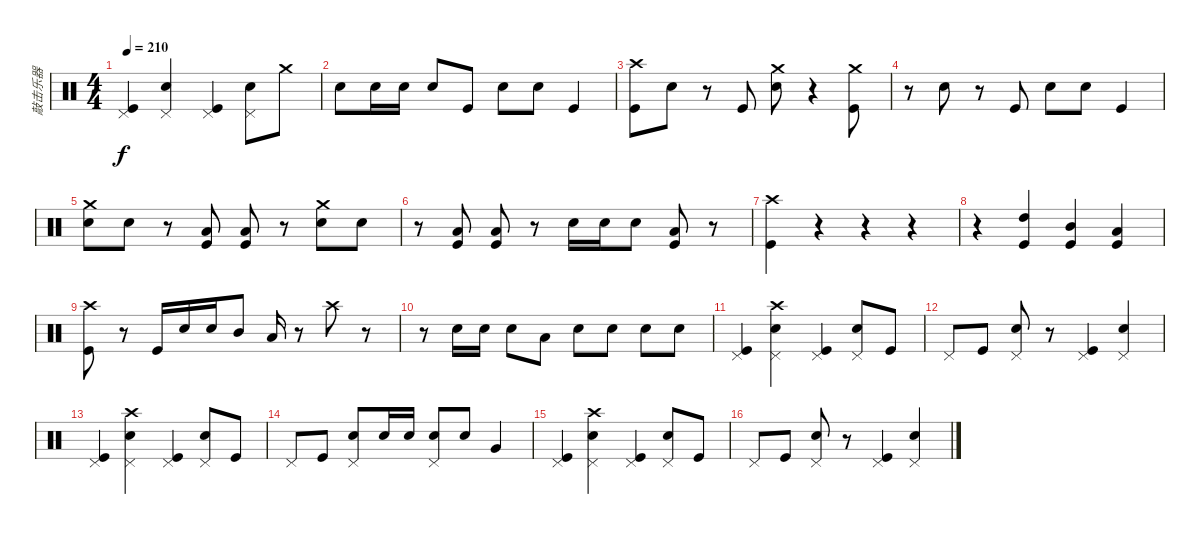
\track ("敲击乐器" "敲击乐器") {instrument percussion}
\staff {score}
\articulation defaults
\ts (4 4)
\tempo 210
\clef neutral
\ks c
("Pedal Hi-Hat (hit)" "Kick (hit)").4{dy f} ("Pedal Hi-Hat (hit)" "Snare (hit) 2").4 ("Pedal Hi-Hat (hit)" "Kick (hit)").4 ("Pedal Hi-Hat (hit)" "Snare (hit) 2").8 "Crash medium (hit)".8 |
"Snare (hit) 2".8 "Snare (hit) 2".16 "Snare (hit) 2".16 "Snare (hit) 2".8 "Kick (hit)".8 "Snare (hit) 2".8 "Snare (hit) 2".8 "Kick (hit)".4 |
("Crash high (hit)" "Kick (hit)").8 "Snare (hit) 2".8 r.8 "Kick (hit)".8 ("Crash medium (hit)" "Snare (hit) 2").8 r.4 ("Crash medium (hit)" "Kick (hit)").8 |
r.8 "Snare (hit) 2".8 r.8 "Kick (hit)".8 "Snare (hit) 2".8 "Snare (hit) 2".8 "Kick (hit)".4 |
("Crash medium (hit)" "Snare (hit) 2").8 "Snare (hit) 2".8 r.8 ("Low Floor Tom (hit)" "Kick (hit)").8 ("Kick (hit)" "Low Tom (hit)").8 r.8 ("Crash medium (hit)" "Snare (hit) 2").8 "Snare (hit) 2".8 |
r.8 ("Low Floor Tom (hit)" "Kick (hit)").8 ("Kick (hit)" "Low Tom (hit)").8 r.8 "Snare (hit) 2".16 "Snare (hit) 2".16 "Snare (hit) 2".8 ("Kick (hit)" "Low Tom (hit)").8 r.8 |
("Crash high (hit)" "Kick (hit)").4 r.4 r.4 r.4 |
r.4 ("High Tom (hit)" "Kick (hit)").4 ("Mid Tom (hit)" "Kick (hit)").4 ("Low Tom (hit)" "Kick (hit)").4 |
("Kick (hit)" "Crash high (hit)").8 r.8 "Kick (hit)".16 "Snare (hit) 2".16 "Snare (hit) 2".16 "Mid Tom (hit)".8 "Low Tom (hit)".16 r.8 "Crash high (hit)".8 r.8 |
r.8 "Snare (hit) 2".16 "Snare (hit) 2".16 "Snare (hit) 2".8 "Low Floor Tom (hit)".8 "Snare (hit) 2".8 "Snare (hit) 2".8 "Snare (hit) 2".8 "Snare (hit) 2".8 |
("Pedal Hi-Hat (hit)" "Kick (hit)").4 ("Crash high (hit)" "Pedal Hi-Hat (hit)" "Snare (hit) 2").4 ("Pedal Hi-Hat (hit)" "Kick (hit)").4 ("Pedal Hi-Hat (hit)" "Snare (hit) 2").8 "Kick (hit)".8 |
"Pedal Hi-Hat (hit)".8 "Kick (hit)".8 ("Pedal Hi-Hat (hit)" "Snare (hit) 2").8 r.8 ("Kick (hit)" "Pedal Hi-Hat (hit)").4 ("Snare (hit) 2" "Pedal Hi-Hat (hit)").4 |
("Pedal Hi-Hat (hit)" "Kick (hit)").4 ("Crash high (hit)" "Pedal Hi-Hat (hit)" "Snare (hit) 2").4 ("Pedal Hi-Hat (hit)" "Kick (hit)").4 ("Pedal Hi-Hat (hit)" "Snare (hit) 2").8 "Kick (hit)".8 |
"Pedal Hi-Hat (hit)".8 "Kick (hit)".8 ("Pedal Hi-Hat (hit)" "Snare (hit) 2").8 "Snare (hit) 2".16 "Snare (hit) 2".16 ("Pedal Hi-Hat (hit)" "Snare (hit) 2").8 "Snare (hit) 2".8 "Very Low Tom (hit)".4 |
("Pedal Hi-Hat (hit)" "Kick (hit)").4 ("Crash high (hit)" "Pedal Hi-Hat (hit)" "Snare (hit) 2").4 ("Pedal Hi-Hat (hit)" "Kick (hit)").4 ("Pedal Hi-Hat (hit)" "Snare (hit) 2").8 "Kick (hit)".8 |
"Pedal Hi-Hat (hit)".8 "Kick (hit)".8 ("Pedal Hi-Hat (hit)" "Snare (hit) 2").8 r.8 ("Kick (hit)" "Pedal Hi-Hat (hit)").4 ("Snare (hit) 2" "Pedal Hi-Hat (hit)").4
